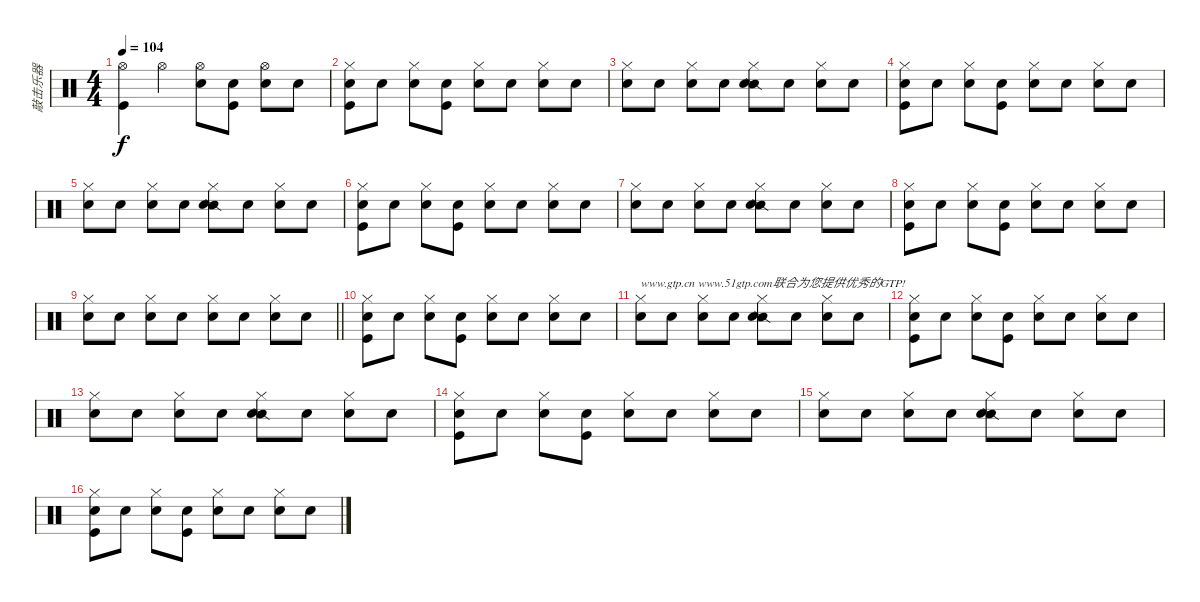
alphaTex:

\track ("敲击乐器" "敲击乐器") {instrument percussion}
\staff {score}
\articulation defaults
\ts (4 4)
\tempo 104
\clef neutral
\ks c
("Hi-Hat (open)" "Kick (hit)").4{dy f} "Hi-Hat (open)".4 ("Hi-Hat (open)" "Snare (hit) 2").8 ("Snare (hit) 2" "Kick (hit)").8 ("Hi-Hat (open)" "Snare (hit) 2").8 "Snare (hit) 2".8 |
("Hi-Hat (closed)" "Snare (hit)" "Kick (hit)").8 "Snare (hit)".8 ("Hi-Hat (closed)" "Snare (hit)").8 ("Snare (hit)" "Kick (hit)").8 ("Hi-Hat (closed)" "Snare (hit)").8 "Snare (hit)".8 ("Hi-Hat (closed)" "Snare (hit)").8 "Snare (hit)".8 |
("Hi-Hat (closed)" "Snare (hit)").8 "Snare (hit)".8 ("Hi-Hat (closed)" "Snare (hit)").8 "Snare (hit)".8 ("Snare (side stick) 2" "Hi-Hat (closed)" "Snare (hit)").8 "Snare (hit)".8 ("Hi-Hat (closed)" "Snare (hit)").8 "Snare (hit)".8 |
("Hi-Hat (closed)" "Snare (hit)" "Kick (hit)").8 "Snare (hit)".8 ("Hi-Hat (closed)" "Snare (hit)").8 ("Snare (hit)" "Kick (hit)").8 ("Hi-Hat (closed)" "Snare (hit)").8 "Snare (hit)".8 ("Hi-Hat (closed)" "Snare (hit)").8 "Snare (hit)".8 |
("Hi-Hat (closed)" "Snare (hit)").8 "Snare (hit)".8 ("Hi-Hat (closed)" "Snare (hit)").8 "Snare (hit)".8 ("Snare (side stick) 2" "Hi-Hat (closed)" "Snare (hit)").8 "Snare (hit)".8 ("Hi-Hat (closed)" "Snare (hit)").8 "Snare (hit)".8 |
("Hi-Hat (closed)" "Snare (hit)" "Kick (hit)").8 "Snare (hit)".8 ("Hi-Hat (closed)" "Snare (hit)").8 ("Snare (hit)" "Kick (hit)").8 ("Hi-Hat (closed)" "Snare (hit)").8 "Snare (hit)".8 ("Hi-Hat (closed)" "Snare (hit)").8 "Snare (hit)".8 |
("Hi-Hat (closed)" "Snare (hit)").8 "Snare (hit)".8 ("Hi-Hat (closed)" "Snare (hit)").8 "Snare (hit)".8 ("Snare (side stick) 2" "Hi-Hat (closed)" "Snare (hit)").8 "Snare (hit)".8 ("Hi-Hat (closed)" "Snare (hit)").8 "Snare (hit)".8 |
("Hi-Hat (closed)" "Snare (hit)" "Kick (hit)").8 "Snare (hit)".8 ("Hi-Hat (closed)" "Snare (hit)").8 ("Snare (hit)" "Kick (hit)").8 ("Hi-Hat (closed)" "Snare (hit)").8 "Snare (hit)".8 ("Hi-Hat (closed)" "Snare (hit)").8 "Snare (hit)".8 |
\barLineRight lightlight
("Hi-Hat (closed)" "Snare (hit)").8 "Snare (hit)".8 ("Hi-Hat (closed)" "Snare (hit)").8 "Snare (hit)".8 ("Hi-Hat (closed)" "Snare (hit)").8 "Snare (hit)".8 ("Hi-Hat (closed)" "Snare (hit)").8 "Snare (hit)".8 |
("Hi-Hat (closed)" "Snare (hit)" "Kick (hit)").8 "Snare (hit)".8 ("Hi-Hat (closed)" "Snare (hit)").8 ("Snare (hit)" "Kick (hit)").8 ("Hi-Hat (closed)" "Snare (hit)").8 "Snare (hit)".8 ("Hi-Hat (closed)" "Snare (hit)").8 "Snare (hit)".8 |
("Hi-Hat (closed)" "Snare (hit)").8{txt "www.gtp.cn www.51gtp.com联合为您提供优秀的GTP!"} "Snare (hit)".8 ("Hi-Hat (closed)" "Snare (hit)").8 "Snare (hit)".8 ("Snare (side stick) 2" "Hi-Hat (closed)" "Snare (hit)").8 "Snare (hit)".8 ("Hi-Hat (closed)" "Snare (hit)").8 "Snare (hit)".8 |
("Hi-Hat (closed)" "Snare (hit)" "Kick (hit)").8 "Snare (hit)".8 ("Hi-Hat (closed)" "Snare (hit)").8 ("Snare (hit)" "Kick (hit)").8 ("Hi-Hat (closed)" "Snare (hit)").8 "Snare (hit)".8 ("Hi-Hat (closed)" "Snare (hit)").8 "Snare (hit)".8 |
("Hi-Hat (closed)" "Snare (hit)").8 "Snare (hit)".8 ("Hi-Hat (closed)" "Snare (hit)").8 "Snare (hit)".8 ("Snare (side stick) 2" "Hi-Hat (closed)" "Snare (hit)").8 "Snare (hit)".8 ("Hi-Hat (closed)" "Snare (hit)").8 "Snare (hit)".8 |
("Hi-Hat (closed)" "Snare (hit)" "Kick (hit)").8 "Snare (hit)".8 ("Hi-Hat (closed)" "Snare (hit)").8 ("Snare (hit)" "Kick (hit)").8 ("Hi-Hat (closed)" "Snare (hit)").8 "Snare (hit)".8 ("Hi-Hat (closed)" "Snare (hit)").8 "Snare (hit)".8 |
("Hi-Hat (closed)" "Snare (hit)").8 "Snare (hit)".8 ("Hi-Hat (closed)" "Snare (hit)").8 "Snare (hit)".8 ("Snare (side stick) 2" "Hi-Hat (closed)" "Snare (hit)").8 "Snare (hit)".8 ("Hi-Hat (closed)" "Snare (hit)").8 "Snare (hit)".8 |
("Hi-Hat (closed)" "Snare (hit)" "Kick (hit)").8 "Snare (hit)".8 ("Hi-Hat (closed)" "Snare (hit)").8 ("Snare (hit)" "Kick (hit)").8 ("Hi-Hat (closed)" "Snare (hit)").8 "Snare (hit)".8 ("Hi-Hat (closed)" "Snare (hit)").8 "Snare (hit)".8
